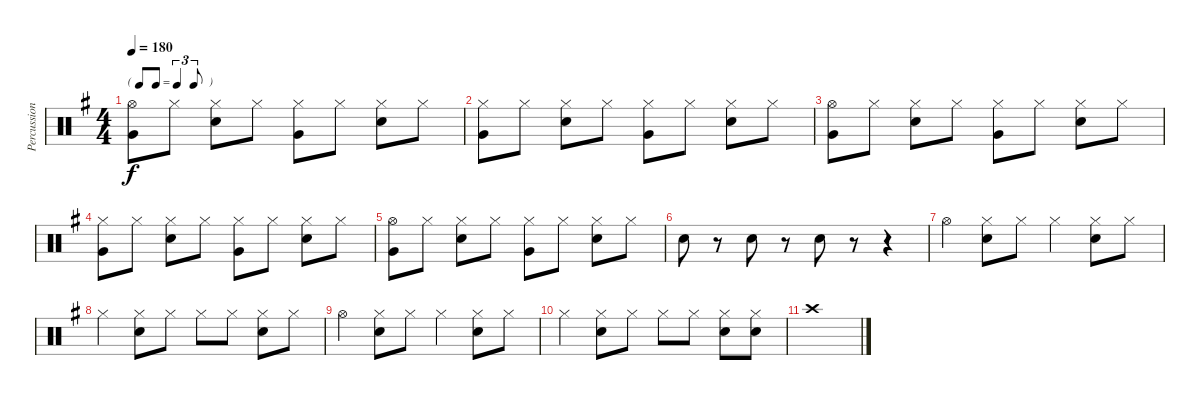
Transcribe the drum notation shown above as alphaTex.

\track ("Percussion" "Percussion") {instrument percussion}
\staff {score}
\articulation defaults
\ts (4 4)
\tf triplet8th
\tempo 180
\clef neutral
\ks g
("Hi-Hat (open)" "Very Low Tom (hit)").8{dy f} "Hi-Hat (closed)".8 ("Hi-Hat (closed)" "Snare (hit) 2").8 "Hi-Hat (closed)".8 ("Hi-Hat (closed)" "Very Low Tom (hit)").8 "Hi-Hat (closed)".8 ("Hi-Hat (closed)" "Snare (hit) 2").8 "Hi-Hat (closed)".8 |
("Hi-Hat (closed)" "Very Low Tom (hit)").8 "Hi-Hat (closed)".8 ("Hi-Hat (closed)" "Snare (hit) 2").8 "Hi-Hat (closed)".8 ("Hi-Hat (closed)" "Very Low Tom (hit)").8 "Hi-Hat (closed)".8 ("Hi-Hat (closed)" "Snare (hit) 2").8 "Hi-Hat (closed)".8 |
("Hi-Hat (open)" "Very Low Tom (hit)").8 "Hi-Hat (closed)".8 ("Hi-Hat (closed)" "Snare (hit) 2").8 "Hi-Hat (closed)".8 ("Hi-Hat (closed)" "Very Low Tom (hit)").8 "Hi-Hat (closed)".8 ("Hi-Hat (closed)" "Snare (hit) 2").8 "Hi-Hat (closed)".8 |
("Hi-Hat (closed)" "Very Low Tom (hit)").8 "Hi-Hat (closed)".8 ("Hi-Hat (closed)" "Snare (hit) 2").8 "Hi-Hat (closed)".8 ("Hi-Hat (closed)" "Very Low Tom (hit)").8 "Hi-Hat (closed)".8 ("Hi-Hat (closed)" "Snare (hit) 2").8 "Hi-Hat (closed)".8 |
("Hi-Hat (open)" "Very Low Tom (hit)").8 "Hi-Hat (closed)".8 ("Hi-Hat (closed)" "Snare (hit) 2").8 "Hi-Hat (closed)".8 ("Hi-Hat (closed)" "Very Low Tom (hit)").8 "Hi-Hat (closed)".8 ("Hi-Hat (closed)" "Snare (hit) 2").8 "Hi-Hat (closed)".8 |
"Snare (hit) 2".8 r.8 "Snare (hit) 2".8 r.8 "Snare (hit) 2".8 r.8 r.4 |
"Hi-Hat (open)".4 ("Hi-Hat (closed)" "Snare (hit) 2").8 "Hi-Hat (closed)".8 "Hi-Hat (closed)".4 ("Hi-Hat (closed)" "Snare (hit) 2").8 "Hi-Hat (closed)".8 |
"Hi-Hat (closed)".4 ("Hi-Hat (closed)" "Snare (hit) 2").8 "Hi-Hat (closed)".8 "Hi-Hat (closed)".8 "Hi-Hat (closed)".8 ("Hi-Hat (closed)" "Snare (hit) 2").8 "Hi-Hat (closed)".8 |
"Hi-Hat (open)".4 ("Hi-Hat (closed)" "Snare (hit) 2").8 "Hi-Hat (closed)".8 "Hi-Hat (closed)".4 ("Hi-Hat (closed)" "Snare (hit) 2").8 "Hi-Hat (closed)".8 |
"Hi-Hat (closed)".4 ("Hi-Hat (closed)" "Snare (hit) 2").8 "Hi-Hat (closed)".8 "Hi-Hat (closed)".8 "Hi-Hat (closed)".8 ("Hi-Hat (closed)" "Snare (hit) 2").8 ("Hi-Hat (closed)" "Snare (hit) 2").8 |
"Crash high (hit)".1
